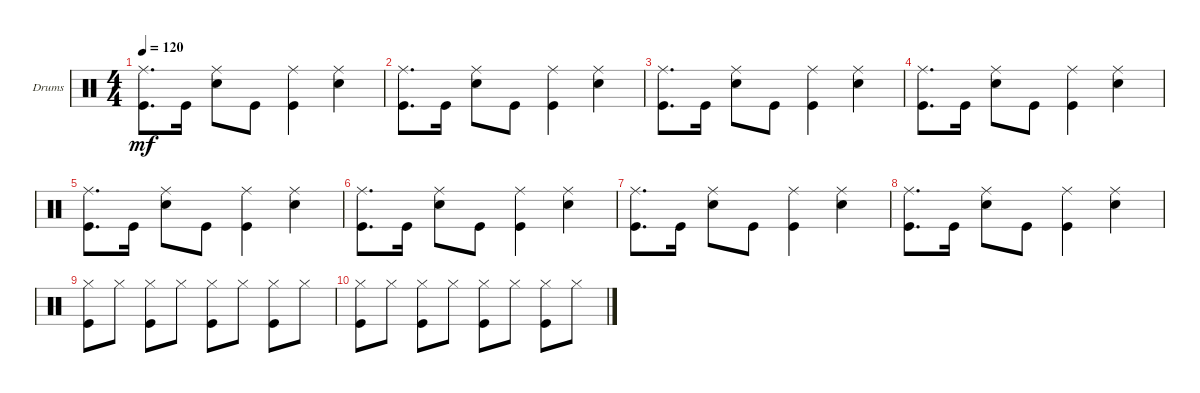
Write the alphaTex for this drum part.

\defaultSystemsLayout 4
\bracketExtendMode groupsimilarinstruments
\firstSystemTrackNameOrientation horizontal
\otherSystemsTrackNameOrientation horizontal
\track ("Drumkit             ( Ударные )" "Drums") {instrument percussion}
\staff {score}
\articulation defaults
\ts (4 4)
\tempo 120
\clef neutral
\ks c
("Kick (hit)" "Ride (middle)").8{d dy mf} "Kick (hit)".16 ("Snare (hit) 2" "Ride (middle)").8 "Kick (hit)".8 ("Kick (hit)" "Ride (middle)").4 ("Ride (middle)" "Snare (hit) 2").4 |
("Kick (hit)" "Ride (middle)").8{d} "Kick (hit)".16 ("Snare (hit) 2" "Ride (middle)").8 "Kick (hit)".8 ("Kick (hit)" "Ride (middle)").4 ("Ride (middle)" "Snare (hit) 2").4 |
("Kick (hit)" "Ride (middle)").8{d} "Kick (hit)".16 ("Snare (hit) 2" "Ride (middle)").8 "Kick (hit)".8 ("Kick (hit)" "Ride (middle)").4 ("Ride (middle)" "Snare (hit) 2").4 |
("Kick (hit)" "Ride (middle)").8{d} "Kick (hit)".16 ("Snare (hit) 2" "Ride (middle)").8 "Kick (hit)".8 ("Kick (hit)" "Ride (middle)").4 ("Ride (middle)" "Snare (hit) 2").4 |
("Kick (hit)" "Ride (middle)").8{d} "Kick (hit)".16 ("Snare (hit) 2" "Ride (middle)").8 "Kick (hit)".8 ("Kick (hit)" "Ride (middle)").4 ("Ride (middle)" "Snare (hit) 2").4 |
("Kick (hit)" "Ride (middle)").8{d} "Kick (hit)".16 ("Snare (hit) 2" "Ride (middle)").8 "Kick (hit)".8 ("Kick (hit)" "Ride (middle)").4 ("Ride (middle)" "Snare (hit) 2").4 |
("Kick (hit)" "Ride (middle)").8{d} "Kick (hit)".16 ("Snare (hit) 2" "Ride (middle)").8 "Kick (hit)".8 ("Kick (hit)" "Ride (middle)").4 ("Ride (middle)" "Snare (hit) 2").4 |
("Kick (hit)" "Ride (middle)").8{d} "Kick (hit)".16 ("Snare (hit) 2" "Ride (middle)").8 "Kick (hit)".8 ("Kick (hit)" "Ride (middle)").4 ("Ride (middle)" "Snare (hit) 2").4 |
("Kick (hit)" "Hi-Hat (closed)").8 "Hi-Hat (closed)".8 ("Hi-Hat (closed)" "Kick (hit)").8 "Hi-Hat (closed)".8 ("Hi-Hat (closed)" "Kick (hit)").8 "Hi-Hat (closed)".8 ("Hi-Hat (closed)" "Kick (hit)").8 "Hi-Hat (closed)".8 |
("Kick (hit)" "Hi-Hat (closed)").8 "Hi-Hat (closed)".8 ("Hi-Hat (closed)" "Kick (hit)").8 "Hi-Hat (closed)".8 ("Hi-Hat (closed)" "Kick (hit)").8 "Hi-Hat (closed)".8 ("Hi-Hat (closed)" "Kick (hit)").8 "Hi-Hat (closed)".8
